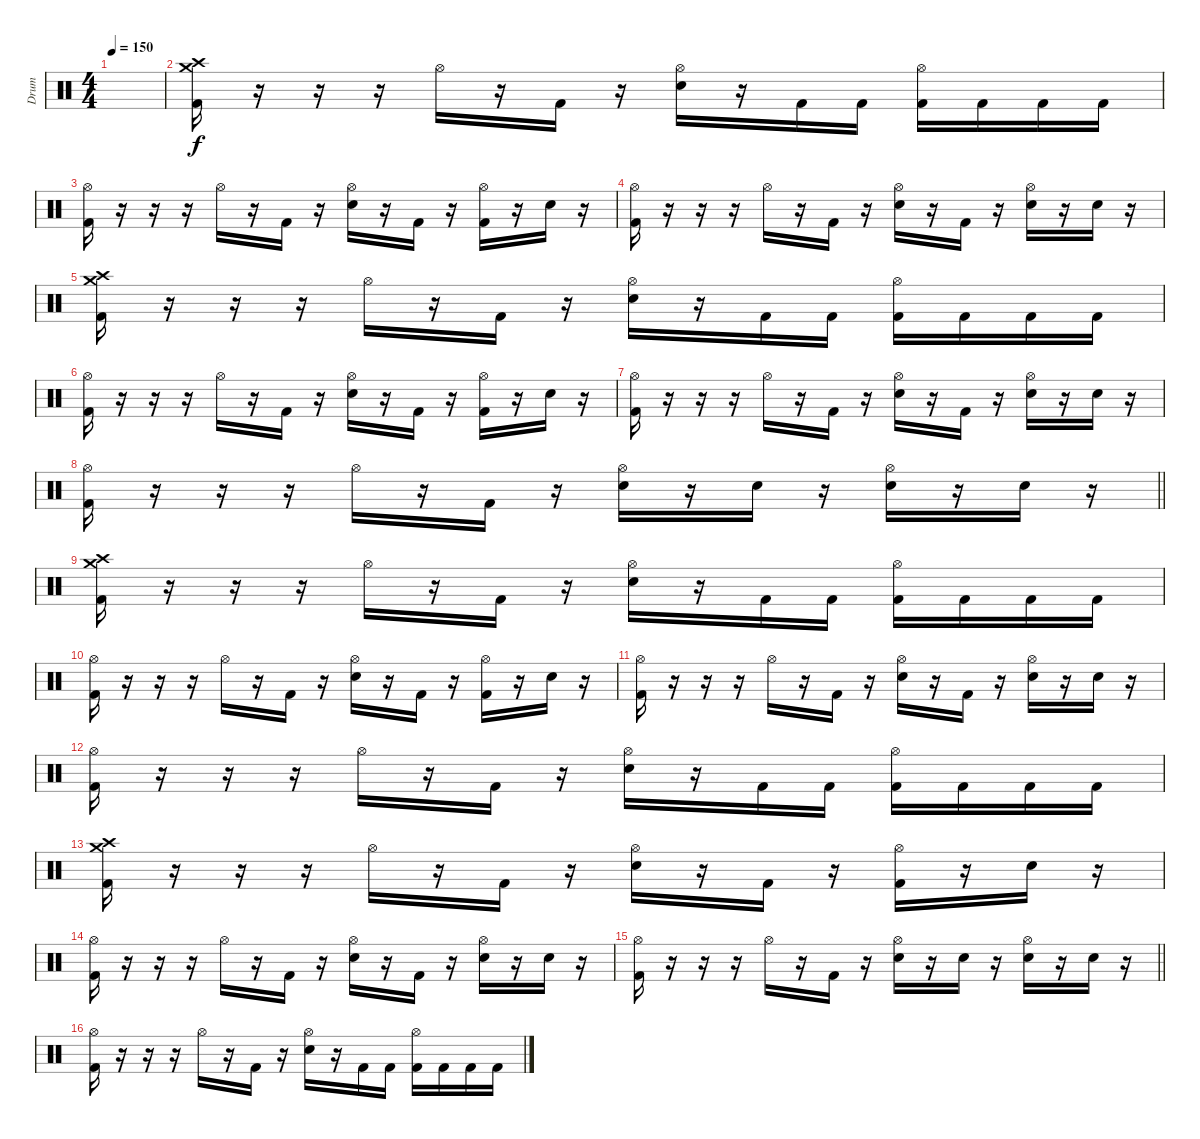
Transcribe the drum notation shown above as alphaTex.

\track ("Drum" "Drum") {instrument percussion}
\staff {score}
\articulation defaults
\ts (4 4)
\tempo 150
\clef neutral
\ks c
|
("Kick (hit) 2" "Crash medium (hit)" "Crash high (hit)").16 r.16 r.16 r.16 "Hi-Hat (open)".16 r.16 "Kick (hit) 2".16 r.16 ("Snare (hit) 2" "Hi-Hat (open)").16 r.16 "Kick (hit) 2".16 "Kick (hit) 2".16 ("Kick (hit) 2" "Hi-Hat (open)").16 "Kick (hit) 2".16 "Kick (hit) 2".16 "Kick (hit) 2".16 |
("Kick (hit) 2" "Hi-Hat (open)").16 r.16 r.16 r.16 "Hi-Hat (open)".16 r.16 "Kick (hit) 2".16 r.16 ("Snare (hit) 2" "Hi-Hat (open)").16 r.16 "Kick (hit) 2".16 r.16 ("Kick (hit) 2" "Hi-Hat (open)").16 r.16 "Snare (hit) 2".16 r.16 |
("Kick (hit) 2" "Hi-Hat (open)").16 r.16 r.16 r.16 "Hi-Hat (open)".16 r.16 "Kick (hit) 2".16 r.16 ("Snare (hit) 2" "Hi-Hat (open)").16 r.16 "Kick (hit) 2".16 r.16 ("Snare (hit) 2" "Hi-Hat (open)").16 r.16 "Snare (hit) 2".16 r.16 |
("Kick (hit) 2" "Crash medium (hit)" "Crash high (hit)").16 r.16 r.16 r.16 "Hi-Hat (open)".16 r.16 "Kick (hit) 2".16 r.16 ("Snare (hit) 2" "Hi-Hat (open)").16 r.16 "Kick (hit) 2".16 "Kick (hit) 2".16 ("Kick (hit) 2" "Hi-Hat (open)").16 "Kick (hit) 2".16 "Kick (hit) 2".16 "Kick (hit) 2".16 |
("Kick (hit) 2" "Hi-Hat (open)").16 r.16 r.16 r.16 "Hi-Hat (open)".16 r.16 "Kick (hit) 2".16 r.16 ("Snare (hit) 2" "Hi-Hat (open)").16 r.16 "Kick (hit) 2".16 r.16 ("Kick (hit) 2" "Hi-Hat (open)").16 r.16 "Snare (hit) 2".16 r.16 |
("Kick (hit) 2" "Hi-Hat (open)").16 r.16 r.16 r.16 "Hi-Hat (open)".16 r.16 "Kick (hit) 2".16 r.16 ("Snare (hit) 2" "Hi-Hat (open)").16 r.16 "Kick (hit) 2".16 r.16 ("Snare (hit) 2" "Hi-Hat (open)").16 r.16 "Snare (hit) 2".16 r.16 |
\barLineRight lightlight
("Kick (hit) 2" "Hi-Hat (open)").16 r.16 r.16 r.16 "Hi-Hat (open)".16 r.16 "Kick (hit) 2".16 r.16 ("Snare (hit) 2" "Hi-Hat (open)").16 r.16 "Snare (hit) 2".16 r.16 ("Snare (hit) 2" "Hi-Hat (open)").16 r.16 "Snare (hit) 2".16 r.16 |
\section ("" "")
("Kick (hit) 2" "Crash medium (hit)" "Crash high (hit)").16 r.16 r.16 r.16 "Hi-Hat (open)".16 r.16 "Kick (hit) 2".16 r.16 ("Snare (hit) 2" "Hi-Hat (open)").16 r.16 "Kick (hit) 2".16 "Kick (hit) 2".16 ("Kick (hit) 2" "Hi-Hat (open)").16 "Kick (hit) 2".16 "Kick (hit) 2".16 "Kick (hit) 2".16 |
("Kick (hit) 2" "Hi-Hat (open)").16 r.16 r.16 r.16 "Hi-Hat (open)".16 r.16 "Kick (hit) 2".16 r.16 ("Snare (hit) 2" "Hi-Hat (open)").16 r.16 "Kick (hit) 2".16 r.16 ("Kick (hit) 2" "Hi-Hat (open)").16 r.16 "Snare (hit) 2".16 r.16 |
("Kick (hit) 2" "Hi-Hat (open)").16 r.16 r.16 r.16 "Hi-Hat (open)".16 r.16 "Kick (hit) 2".16 r.16 ("Snare (hit) 2" "Hi-Hat (open)").16 r.16 "Kick (hit) 2".16 r.16 ("Snare (hit) 2" "Hi-Hat (open)").16 r.16 "Snare (hit) 2".16 r.16 |
("Kick (hit) 2" "Hi-Hat (open)").16 r.16 r.16 r.16 "Hi-Hat (open)".16 r.16 "Kick (hit) 2".16 r.16 ("Snare (hit) 2" "Hi-Hat (open)").16 r.16 "Kick (hit) 2".16 "Kick (hit) 2".16 ("Kick (hit) 2" "Hi-Hat (open)").16 "Kick (hit) 2".16 "Kick (hit) 2".16 "Kick (hit) 2".16 |
("Kick (hit) 2" "Crash high (hit)" "Crash medium (hit)").16 r.16 r.16 r.16 "Hi-Hat (open)".16 r.16 "Kick (hit) 2".16 r.16 ("Snare (hit) 2" "Hi-Hat (open)").16 r.16 "Kick (hit) 2".16 r.16 ("Kick (hit) 2" "Hi-Hat (open)").16 r.16 "Snare (hit) 2".16 r.16 |
("Kick (hit) 2" "Hi-Hat (open)").16 r.16 r.16 r.16 "Hi-Hat (open)".16 r.16 "Kick (hit) 2".16 r.16 ("Snare (hit) 2" "Hi-Hat (open)").16 r.16 "Kick (hit) 2".16 r.16 ("Snare (hit) 2" "Hi-Hat (open)").16 r.16 "Snare (hit) 2".16 r.16 |
\barLineRight lightlight
("Kick (hit) 2" "Hi-Hat (open)").16 r.16 r.16 r.16 "Hi-Hat (open)".16 r.16 "Kick (hit) 2".16 r.16 ("Snare (hit) 2" "Hi-Hat (open)").16 r.16 "Snare (hit) 2".16 r.16 ("Snare (hit) 2" "Hi-Hat (open)").16 r.16 "Snare (hit) 2".16 r.16 |
("Kick (hit) 2" "Hi-Hat (open)").16 r.16 r.16 r.16 "Hi-Hat (open)".16 r.16 "Kick (hit) 2".16 r.16 ("Snare (hit) 2" "Hi-Hat (open)").16 r.16 "Kick (hit) 2".16 "Kick (hit) 2".16 ("Kick (hit) 2" "Hi-Hat (open)").16 "Kick (hit) 2".16 "Kick (hit) 2".16 "Kick (hit) 2".16
